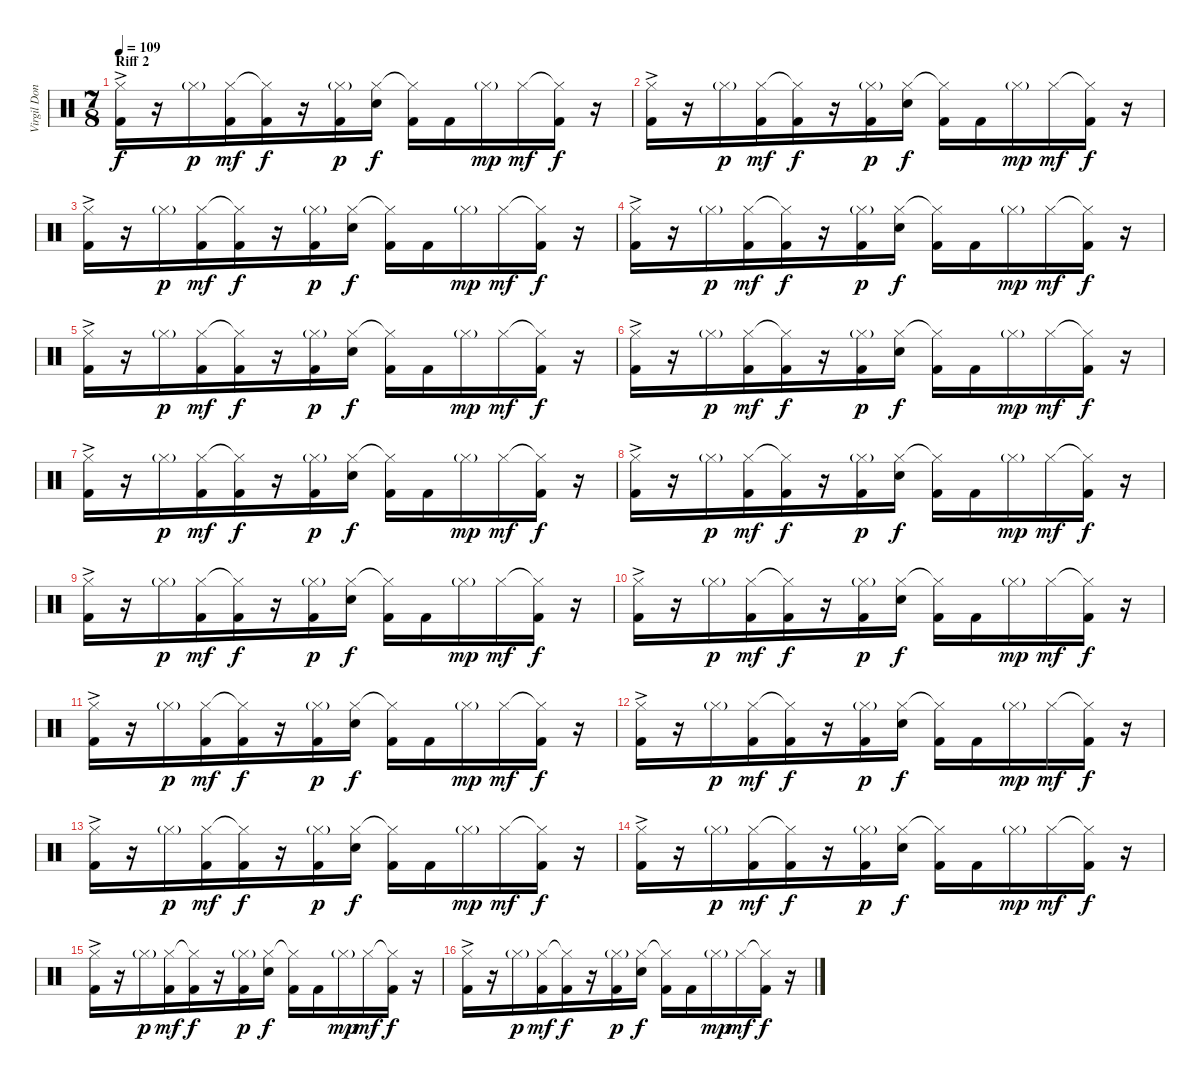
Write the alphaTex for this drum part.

\track ("Virgil Donati" "Virgil Don") {instrument percussion}
\staff {score}
\articulation defaults
\ts (7 8)
\section ("" "Riff 2")
\tempo 109
\clef neutral
\ks c
("Hi-Hat (closed)"{ac} "Kick (hit) 2").16{dy f} r.16 "Hi-Hat (closed)"{g}.16{dy p} ("Hi-Hat (closed)" "Kick (hit) 2").16{dy mf} ("Hi-Hat (closed)"{t} "Kick (hit) 2").16{dy f} r.16 ("Hi-Hat (closed)"{g} "Kick (hit) 2").16{dy p} ("Hi-Hat (closed)" "Electric Snare (hit)").16{dy f} ("Hi-Hat (closed)"{t} "Kick (hit) 2").16 "Kick (hit) 2".16 "Hi-Hat (closed)"{g}.16{dy mp} "Hi-Hat (closed)".16{dy mf} ("Hi-Hat (closed)"{t} "Kick (hit) 2").16{dy f} r.16 |
("Hi-Hat (closed)"{ac} "Kick (hit) 2").16 r.16 "Hi-Hat (closed)"{g}.16{dy p} ("Hi-Hat (closed)" "Kick (hit) 2").16{dy mf} ("Hi-Hat (closed)"{t} "Kick (hit) 2").16{dy f} r.16 ("Hi-Hat (closed)"{g} "Kick (hit) 2").16{dy p} ("Hi-Hat (closed)" "Electric Snare (hit)").16{dy f} ("Hi-Hat (closed)"{t} "Kick (hit) 2").16 "Kick (hit) 2".16 "Hi-Hat (closed)"{g}.16{dy mp} "Hi-Hat (closed)".16{dy mf} ("Hi-Hat (closed)"{t} "Kick (hit) 2").16{dy f} r.16 |
("Hi-Hat (closed)"{ac} "Kick (hit) 2").16 r.16 "Hi-Hat (closed)"{g}.16{dy p} ("Hi-Hat (closed)" "Kick (hit) 2").16{dy mf} ("Hi-Hat (closed)"{t} "Kick (hit) 2").16{dy f} r.16 ("Hi-Hat (closed)"{g} "Kick (hit) 2").16{dy p} ("Hi-Hat (closed)" "Electric Snare (hit)").16{dy f} ("Hi-Hat (closed)"{t} "Kick (hit) 2").16 "Kick (hit) 2".16 "Hi-Hat (closed)"{g}.16{dy mp} "Hi-Hat (closed)".16{dy mf} ("Hi-Hat (closed)"{t} "Kick (hit) 2").16{dy f} r.16 |
("Hi-Hat (closed)"{ac} "Kick (hit) 2").16 r.16 "Hi-Hat (closed)"{g}.16{dy p} ("Hi-Hat (closed)" "Kick (hit) 2").16{dy mf} ("Hi-Hat (closed)"{t} "Kick (hit) 2").16{dy f} r.16 ("Hi-Hat (closed)"{g} "Kick (hit) 2").16{dy p} ("Hi-Hat (closed)" "Electric Snare (hit)").16{dy f} ("Hi-Hat (closed)"{t} "Kick (hit) 2").16 "Kick (hit) 2".16 "Hi-Hat (closed)"{g}.16{dy mp} "Hi-Hat (closed)".16{dy mf} ("Hi-Hat (closed)"{t} "Kick (hit) 2").16{dy f} r.16 |
("Hi-Hat (closed)"{ac} "Kick (hit) 2").16 r.16 "Hi-Hat (closed)"{g}.16{dy p} ("Hi-Hat (closed)" "Kick (hit) 2").16{dy mf} ("Hi-Hat (closed)"{t} "Kick (hit) 2").16{dy f} r.16 ("Hi-Hat (closed)"{g} "Kick (hit) 2").16{dy p} ("Hi-Hat (closed)" "Electric Snare (hit)").16{dy f} ("Hi-Hat (closed)"{t} "Kick (hit) 2").16 "Kick (hit) 2".16 "Hi-Hat (closed)"{g}.16{dy mp} "Hi-Hat (closed)".16{dy mf} ("Hi-Hat (closed)"{t} "Kick (hit) 2").16{dy f} r.16 |
("Hi-Hat (closed)"{ac} "Kick (hit) 2").16 r.16 "Hi-Hat (closed)"{g}.16{dy p} ("Hi-Hat (closed)" "Kick (hit) 2").16{dy mf} ("Hi-Hat (closed)"{t} "Kick (hit) 2").16{dy f} r.16 ("Hi-Hat (closed)"{g} "Kick (hit) 2").16{dy p} ("Hi-Hat (closed)" "Electric Snare (hit)").16{dy f} ("Hi-Hat (closed)"{t} "Kick (hit) 2").16 "Kick (hit) 2".16 "Hi-Hat (closed)"{g}.16{dy mp} "Hi-Hat (closed)".16{dy mf} ("Hi-Hat (closed)"{t} "Kick (hit) 2").16{dy f} r.16 |
("Hi-Hat (closed)"{ac} "Kick (hit) 2").16 r.16 "Hi-Hat (closed)"{g}.16{dy p} ("Hi-Hat (closed)" "Kick (hit) 2").16{dy mf} ("Hi-Hat (closed)"{t} "Kick (hit) 2").16{dy f} r.16 ("Hi-Hat (closed)"{g} "Kick (hit) 2").16{dy p} ("Hi-Hat (closed)" "Electric Snare (hit)").16{dy f} ("Hi-Hat (closed)"{t} "Kick (hit) 2").16 "Kick (hit) 2".16 "Hi-Hat (closed)"{g}.16{dy mp} "Hi-Hat (closed)".16{dy mf} ("Hi-Hat (closed)"{t} "Kick (hit) 2").16{dy f} r.16 |
("Hi-Hat (closed)"{ac} "Kick (hit) 2").16 r.16 "Hi-Hat (closed)"{g}.16{dy p} ("Hi-Hat (closed)" "Kick (hit) 2").16{dy mf} ("Hi-Hat (closed)"{t} "Kick (hit) 2").16{dy f} r.16 ("Hi-Hat (closed)"{g} "Kick (hit) 2").16{dy p} ("Hi-Hat (closed)" "Electric Snare (hit)").16{dy f} ("Hi-Hat (closed)"{t} "Kick (hit) 2").16 "Kick (hit) 2".16 "Hi-Hat (closed)"{g}.16{dy mp} "Hi-Hat (closed)".16{dy mf} ("Hi-Hat (closed)"{t} "Kick (hit) 2").16{dy f} r.16 |
("Hi-Hat (closed)"{ac} "Kick (hit) 2").16 r.16 "Hi-Hat (closed)"{g}.16{dy p} ("Hi-Hat (closed)" "Kick (hit) 2").16{dy mf} ("Hi-Hat (closed)"{t} "Kick (hit) 2").16{dy f} r.16 ("Hi-Hat (closed)"{g} "Kick (hit) 2").16{dy p} ("Hi-Hat (closed)" "Electric Snare (hit)").16{dy f} ("Hi-Hat (closed)"{t} "Kick (hit) 2").16 "Kick (hit) 2".16 "Hi-Hat (closed)"{g}.16{dy mp} "Hi-Hat (closed)".16{dy mf} ("Hi-Hat (closed)"{t} "Kick (hit) 2").16{dy f} r.16 |
("Hi-Hat (closed)"{ac} "Kick (hit) 2").16 r.16 "Hi-Hat (closed)"{g}.16{dy p} ("Hi-Hat (closed)" "Kick (hit) 2").16{dy mf} ("Hi-Hat (closed)"{t} "Kick (hit) 2").16{dy f} r.16 ("Hi-Hat (closed)"{g} "Kick (hit) 2").16{dy p} ("Hi-Hat (closed)" "Electric Snare (hit)").16{dy f} ("Hi-Hat (closed)"{t} "Kick (hit) 2").16 "Kick (hit) 2".16 "Hi-Hat (closed)"{g}.16{dy mp} "Hi-Hat (closed)".16{dy mf} ("Hi-Hat (closed)"{t} "Kick (hit) 2").16{dy f} r.16 |
("Hi-Hat (closed)"{ac} "Kick (hit) 2").16 r.16 "Hi-Hat (closed)"{g}.16{dy p} ("Hi-Hat (closed)" "Kick (hit) 2").16{dy mf} ("Hi-Hat (closed)"{t} "Kick (hit) 2").16{dy f} r.16 ("Hi-Hat (closed)"{g} "Kick (hit) 2").16{dy p} ("Hi-Hat (closed)" "Electric Snare (hit)").16{dy f} ("Hi-Hat (closed)"{t} "Kick (hit) 2").16 "Kick (hit) 2".16 "Hi-Hat (closed)"{g}.16{dy mp} "Hi-Hat (closed)".16{dy mf} ("Hi-Hat (closed)"{t} "Kick (hit) 2").16{dy f} r.16 |
("Hi-Hat (closed)"{ac} "Kick (hit) 2").16 r.16 "Hi-Hat (closed)"{g}.16{dy p} ("Hi-Hat (closed)" "Kick (hit) 2").16{dy mf} ("Hi-Hat (closed)"{t} "Kick (hit) 2").16{dy f} r.16 ("Hi-Hat (closed)"{g} "Kick (hit) 2").16{dy p} ("Hi-Hat (closed)" "Electric Snare (hit)").16{dy f} ("Hi-Hat (closed)"{t} "Kick (hit) 2").16 "Kick (hit) 2".16 "Hi-Hat (closed)"{g}.16{dy mp} "Hi-Hat (closed)".16{dy mf} ("Hi-Hat (closed)"{t} "Kick (hit) 2").16{dy f} r.16 |
("Hi-Hat (closed)"{ac} "Kick (hit) 2").16 r.16 "Hi-Hat (closed)"{g}.16{dy p} ("Hi-Hat (closed)" "Kick (hit) 2").16{dy mf} ("Hi-Hat (closed)"{t} "Kick (hit) 2").16{dy f} r.16 ("Hi-Hat (closed)"{g} "Kick (hit) 2").16{dy p} ("Hi-Hat (closed)" "Electric Snare (hit)").16{dy f} ("Hi-Hat (closed)"{t} "Kick (hit) 2").16 "Kick (hit) 2".16 "Hi-Hat (closed)"{g}.16{dy mp} "Hi-Hat (closed)".16{dy mf} ("Hi-Hat (closed)"{t} "Kick (hit) 2").16{dy f} r.16 |
("Hi-Hat (closed)"{ac} "Kick (hit) 2").16 r.16 "Hi-Hat (closed)"{g}.16{dy p} ("Hi-Hat (closed)" "Kick (hit) 2").16{dy mf} ("Hi-Hat (closed)"{t} "Kick (hit) 2").16{dy f} r.16 ("Hi-Hat (closed)"{g} "Kick (hit) 2").16{dy p} ("Hi-Hat (closed)" "Electric Snare (hit)").16{dy f} ("Hi-Hat (closed)"{t} "Kick (hit) 2").16 "Kick (hit) 2".16 "Hi-Hat (closed)"{g}.16{dy mp} "Hi-Hat (closed)".16{dy mf} ("Hi-Hat (closed)"{t} "Kick (hit) 2").16{dy f} r.16 |
("Hi-Hat (closed)"{ac} "Kick (hit) 2").16 r.16 "Hi-Hat (closed)"{g}.16{dy p} ("Hi-Hat (closed)" "Kick (hit) 2").16{dy mf} ("Hi-Hat (closed)"{t} "Kick (hit) 2").16{dy f} r.16 ("Hi-Hat (closed)"{g} "Kick (hit) 2").16{dy p} ("Hi-Hat (closed)" "Electric Snare (hit)").16{dy f} ("Hi-Hat (closed)"{t} "Kick (hit) 2").16 "Kick (hit) 2".16 "Hi-Hat (closed)"{g}.16{dy mp} "Hi-Hat (closed)".16{dy mf} ("Hi-Hat (closed)"{t} "Kick (hit) 2").16{dy f} r.16 |
("Hi-Hat (closed)"{ac} "Kick (hit) 2").16 r.16 "Hi-Hat (closed)"{g}.16{dy p} ("Hi-Hat (closed)" "Kick (hit) 2").16{dy mf} ("Hi-Hat (closed)"{t} "Kick (hit) 2").16{dy f} r.16 ("Hi-Hat (closed)"{g} "Kick (hit) 2").16{dy p} ("Hi-Hat (closed)" "Electric Snare (hit)").16{dy f} ("Hi-Hat (closed)"{t} "Kick (hit) 2").16 "Kick (hit) 2".16 "Hi-Hat (closed)"{g}.16{dy mp} "Hi-Hat (closed)".16{dy mf} ("Hi-Hat (closed)"{t} "Kick (hit) 2").16{dy f} r.16
